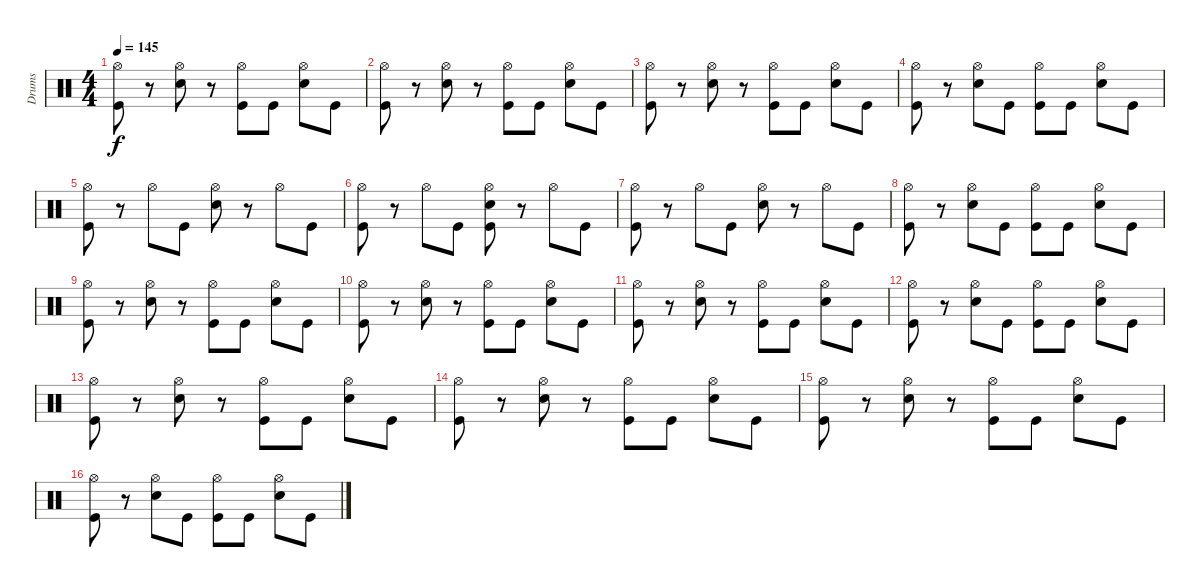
\track ("Drums" "Drums") {instrument percussion}
\staff {score}
\articulation defaults
\ts (4 4)
\tempo 145
\clef neutral
\ks c
("Hi-Hat (open)" "Kick (hit)").8{dy f} r.8 ("Hi-Hat (open)" "Snare (hit) 2").8 r.8 ("Hi-Hat (open)" "Kick (hit)").8 "Kick (hit)".8 ("Hi-Hat (open)" "Snare (hit) 2").8 "Kick (hit)".8 |
("Hi-Hat (open)" "Kick (hit)").8 r.8 ("Hi-Hat (open)" "Snare (hit) 2").8 r.8 ("Hi-Hat (open)" "Kick (hit)").8 "Kick (hit)".8 ("Hi-Hat (open)" "Snare (hit) 2").8 "Kick (hit)".8 |
("Hi-Hat (open)" "Kick (hit)").8 r.8 ("Hi-Hat (open)" "Snare (hit) 2").8 r.8 ("Hi-Hat (open)" "Kick (hit)").8 "Kick (hit)".8 ("Hi-Hat (open)" "Snare (hit) 2").8 "Kick (hit)".8 |
("Hi-Hat (open)" "Kick (hit)").8 r.8 ("Hi-Hat (open)" "Snare (hit) 2").8 "Kick (hit)".8 ("Hi-Hat (open)" "Kick (hit)").8 "Kick (hit)".8 ("Hi-Hat (open)" "Snare (hit) 2").8 "Kick (hit)".8 |
("Hi-Hat (open)" "Kick (hit)").8 r.8 "Hi-Hat (open)".8 "Kick (hit)".8 ("Hi-Hat (open)" "Snare (hit) 2").8 r.8 "Hi-Hat (open)".8 "Kick (hit)".8 |
("Hi-Hat (open)" "Kick (hit)").8 r.8 "Hi-Hat (open)".8 "Kick (hit)".8 ("Hi-Hat (open)" "Snare (hit) 2" "Kick (hit)").8 r.8 "Hi-Hat (open)".8 "Kick (hit)".8 |
("Hi-Hat (open)" "Kick (hit)").8 r.8 "Hi-Hat (open)".8 "Kick (hit)".8 ("Hi-Hat (open)" "Snare (hit) 2").8 r.8 "Hi-Hat (open)".8 "Kick (hit)".8 |
("Hi-Hat (open)" "Kick (hit)").8 r.8 ("Hi-Hat (open)" "Snare (hit) 2").8 "Kick (hit)".8 ("Hi-Hat (open)" "Kick (hit)").8 "Kick (hit)".8 ("Hi-Hat (open)" "Snare (hit) 2").8 "Kick (hit)".8 |
("Hi-Hat (open)" "Kick (hit)").8 r.8 ("Hi-Hat (open)" "Snare (hit) 2").8 r.8 ("Hi-Hat (open)" "Kick (hit)").8 "Kick (hit)".8 ("Hi-Hat (open)" "Snare (hit) 2").8 "Kick (hit)".8 |
("Hi-Hat (open)" "Kick (hit)").8 r.8 ("Hi-Hat (open)" "Snare (hit) 2").8 r.8 ("Hi-Hat (open)" "Kick (hit)").8 "Kick (hit)".8 ("Hi-Hat (open)" "Snare (hit) 2").8 "Kick (hit)".8 |
("Hi-Hat (open)" "Kick (hit)").8 r.8 ("Hi-Hat (open)" "Snare (hit) 2").8 r.8 ("Hi-Hat (open)" "Kick (hit)").8 "Kick (hit)".8 ("Hi-Hat (open)" "Snare (hit) 2").8 "Kick (hit)".8 |
("Hi-Hat (open)" "Kick (hit)").8 r.8 ("Hi-Hat (open)" "Snare (hit) 2").8 "Kick (hit)".8 ("Hi-Hat (open)" "Kick (hit)").8 "Kick (hit)".8 ("Hi-Hat (open)" "Snare (hit) 2").8 "Kick (hit)".8 |
("Hi-Hat (open)" "Kick (hit)").8 r.8 ("Hi-Hat (open)" "Snare (hit) 2").8 r.8 ("Hi-Hat (open)" "Kick (hit)").8 "Kick (hit)".8 ("Hi-Hat (open)" "Snare (hit) 2").8 "Kick (hit)".8 |
("Hi-Hat (open)" "Kick (hit)").8 r.8 ("Hi-Hat (open)" "Snare (hit) 2").8 r.8 ("Hi-Hat (open)" "Kick (hit)").8 "Kick (hit)".8 ("Hi-Hat (open)" "Snare (hit) 2").8 "Kick (hit)".8 |
("Hi-Hat (open)" "Kick (hit)").8 r.8 ("Hi-Hat (open)" "Snare (hit) 2").8 r.8 ("Hi-Hat (open)" "Kick (hit)").8 "Kick (hit)".8 ("Hi-Hat (open)" "Snare (hit) 2").8 "Kick (hit)".8 |
("Hi-Hat (open)" "Kick (hit)").8 r.8 ("Hi-Hat (open)" "Snare (hit) 2").8 "Kick (hit)".8 ("Hi-Hat (open)" "Kick (hit)").8 "Kick (hit)".8 ("Hi-Hat (open)" "Snare (hit) 2").8 "Kick (hit)".8
